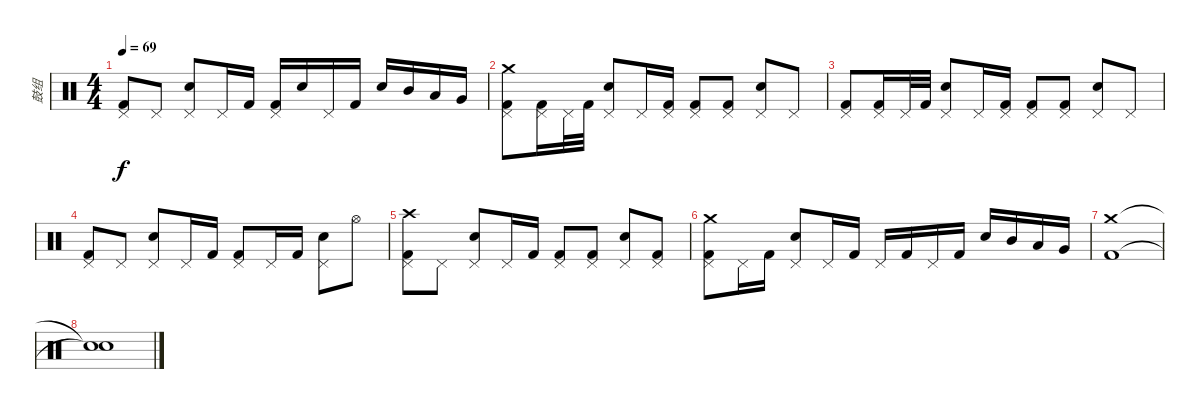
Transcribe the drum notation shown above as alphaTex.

\track ("鼓组" "鼓组") {instrument percussion}
\staff {score}
\articulation defaults
\ts (4 4)
\tempo 69
\clef neutral
\ks c
("Kick (hit) 2" "Pedal Hi-Hat (hit)").8{dy f} "Pedal Hi-Hat (hit)".8 ("Snare (hit) 2" "Pedal Hi-Hat (hit)").8 "Pedal Hi-Hat (hit)".16 "Kick (hit) 2".16 ("Kick (hit) 2" "Pedal Hi-Hat (hit)").16 "Snare (hit) 2".16 "Pedal Hi-Hat (hit)".16 "Kick (hit) 2".16 "Snare (hit) 2".16 "Mid Tom (hit)".16 "Low Tom (hit)".16 "Very Low Tom (hit)".16 |
("Crash medium (hit)" "Kick (hit) 2" "Pedal Hi-Hat (hit)").8 ("Kick (hit) 2" "Pedal Hi-Hat (hit)").16 "Pedal Hi-Hat (hit)".32 "Kick (hit) 2".32 ("Snare (hit) 2" "Pedal Hi-Hat (hit)").8 "Pedal Hi-Hat (hit)".16 ("Kick (hit) 2" "Pedal Hi-Hat (hit)").16 ("Kick (hit) 2" "Pedal Hi-Hat (hit)").8 ("Kick (hit) 2" "Pedal Hi-Hat (hit)").8 ("Snare (hit) 2" "Pedal Hi-Hat (hit)").8 "Pedal Hi-Hat (hit)".8 |
("Kick (hit) 2" "Pedal Hi-Hat (hit)").8 ("Kick (hit) 2" "Pedal Hi-Hat (hit)").16 "Pedal Hi-Hat (hit)".32 "Kick (hit) 2".32 ("Snare (hit) 2" "Pedal Hi-Hat (hit)").8 "Pedal Hi-Hat (hit)".16 ("Kick (hit) 2" "Pedal Hi-Hat (hit)").16 ("Kick (hit) 2" "Pedal Hi-Hat (hit)").8 ("Kick (hit) 2" "Pedal Hi-Hat (hit)").8 ("Snare (hit) 2" "Pedal Hi-Hat (hit)").8 "Pedal Hi-Hat (hit)".8 |
("Kick (hit) 2" "Pedal Hi-Hat (hit)").8 "Pedal Hi-Hat (hit)".8 ("Snare (hit) 2" "Pedal Hi-Hat (hit)").8 "Pedal Hi-Hat (hit)".16 "Kick (hit) 2".16 ("Kick (hit) 2" "Pedal Hi-Hat (hit)").8 "Pedal Hi-Hat (hit)".16 "Kick (hit) 2".16 ("Snare (hit) 2" "Pedal Hi-Hat (hit)").8 "Hi-Hat (open)".8 |
("Crash high (hit)" "Kick (hit) 2" "Pedal Hi-Hat (hit)").8 "Pedal Hi-Hat (hit)".8 ("Snare (hit) 2" "Pedal Hi-Hat (hit)").8 "Pedal Hi-Hat (hit)".16 "Kick (hit) 2".16 ("Kick (hit) 2" "Pedal Hi-Hat (hit)").8 ("Kick (hit) 2" "Pedal Hi-Hat (hit)").8 ("Snare (hit) 2" "Pedal Hi-Hat (hit)").8 ("Kick (hit) 2" "Pedal Hi-Hat (hit)").8 |
("Crash medium (hit)" "Kick (hit) 2" "Pedal Hi-Hat (hit)").8 "Pedal Hi-Hat (hit)".16 "Kick (hit) 2".16 ("Snare (hit) 2" "Pedal Hi-Hat (hit)").8 "Pedal Hi-Hat (hit)".16 "Kick (hit) 2".16 "Pedal Hi-Hat (hit)".16 "Kick (hit) 2".16 "Pedal Hi-Hat (hit)".16 "Kick (hit) 2".16 "Snare (hit) 2".16 "Mid Tom (hit)".16 "Low Tom (hit)".16 "Very Low Tom (hit)".16 |
("Crash medium (hit)" "Kick (hit) 2").1 |
("Snare (hit)"{t} "Snare (hit)"{t}).1
